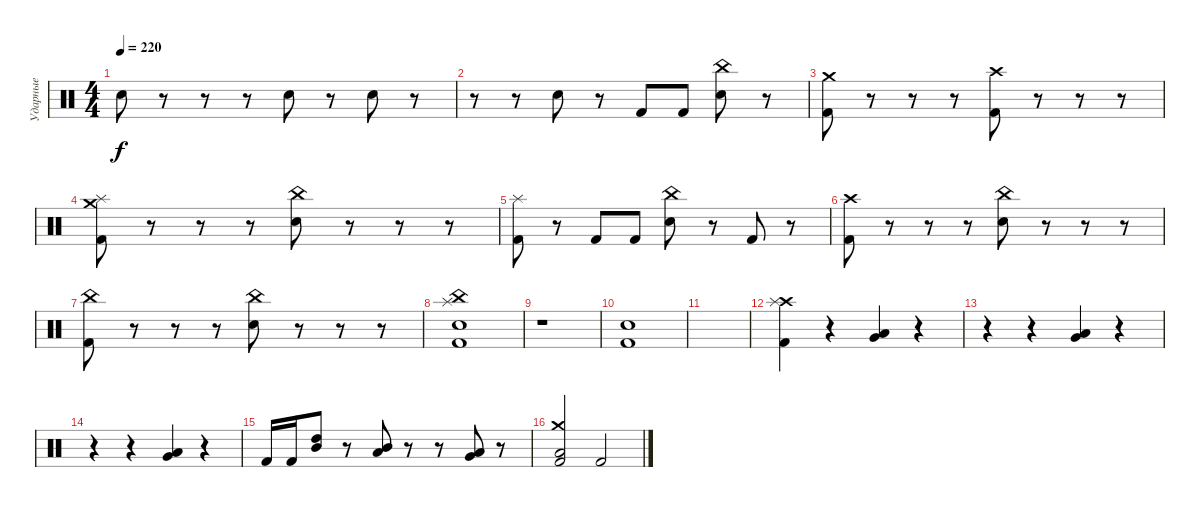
\track ("Ударные" "Ударные") {instrument percussion}
\staff {score}
\articulation defaults
\ts (4 4)
\tempo 220
\clef neutral
\ks c "Electric Snare (hit)".8{dy f}
r.8 r.8 r.8 "Electric Snare (hit)".8 r.8 "Electric Snare (hit)".8 r.8 |
r.8 r.8 "Electric Snare (hit)".8 r.8 "Kick (hit) 2".8 "Kick (hit) 2".8 ("Electric Snare (hit)" "China (hit)").8 r.8 |
("Kick (hit) 2" "Crash medium (hit)").8 r.8 r.8 r.8 ("Kick (hit) 2" "Crash high (hit)").8 r.8 r.8 r.8 |
("Kick (hit) 2" "Crash medium (hit)" "Splash (hit)").8 r.8 r.8 r.8 ("Electric Snare (hit)" "China (hit)").8 r.8 r.8 r.8 |
("Kick (hit) 2" "Splash (hit)").8 r.8 "Kick (hit) 2".8 "Kick (hit) 2".8 ("Electric Snare (hit)" "China (hit)").8 r.8 "Kick (hit) 2".8 r.8 |
("Kick (hit) 2" "Crash high (hit)").8 r.8 r.8 r.8 ("Electric Snare (hit)" "China (hit)").8 r.8 r.8 r.8 |
("Kick (hit) 2" "China (hit)").8 r.8 r.8 r.8 ("Electric Snare (hit)" "China (hit)").8 r.8 r.8 r.8 |
("Kick (hit) 2" "Electric Snare (hit)" "Splash (hit)" "China (hit)").1 |
r.1 |
("Kick (hit) 2" "Electric Snare (hit)").1 |
|
("Kick (hit) 2" "Crash high (hit)" "Splash (hit)").4 r.4 ("Low Floor Tom (hit)" "Very Low Tom (hit)").4 r.4 |
r.4 r.4 ("Low Floor Tom (hit)" "Very Low Tom (hit)").4 r.4 |
r.4 r.4 ("Low Floor Tom (hit)" "Very Low Tom (hit)").4 r.4 |
"Kick (hit) 2".16 "Kick (hit) 2".16 ("Mid Tom (hit)" "High Tom (hit)").8 r.8 ("Low Tom (hit)" "Mid Tom (hit)").8 r.8 r.8 ("Low Tom (hit)" "Very Low Tom (hit)").8 r.8 |
("Kick (hit) 2" "Low Floor Tom (hit)" "Crash medium (hit)").2 "Kick (hit) 2".2
